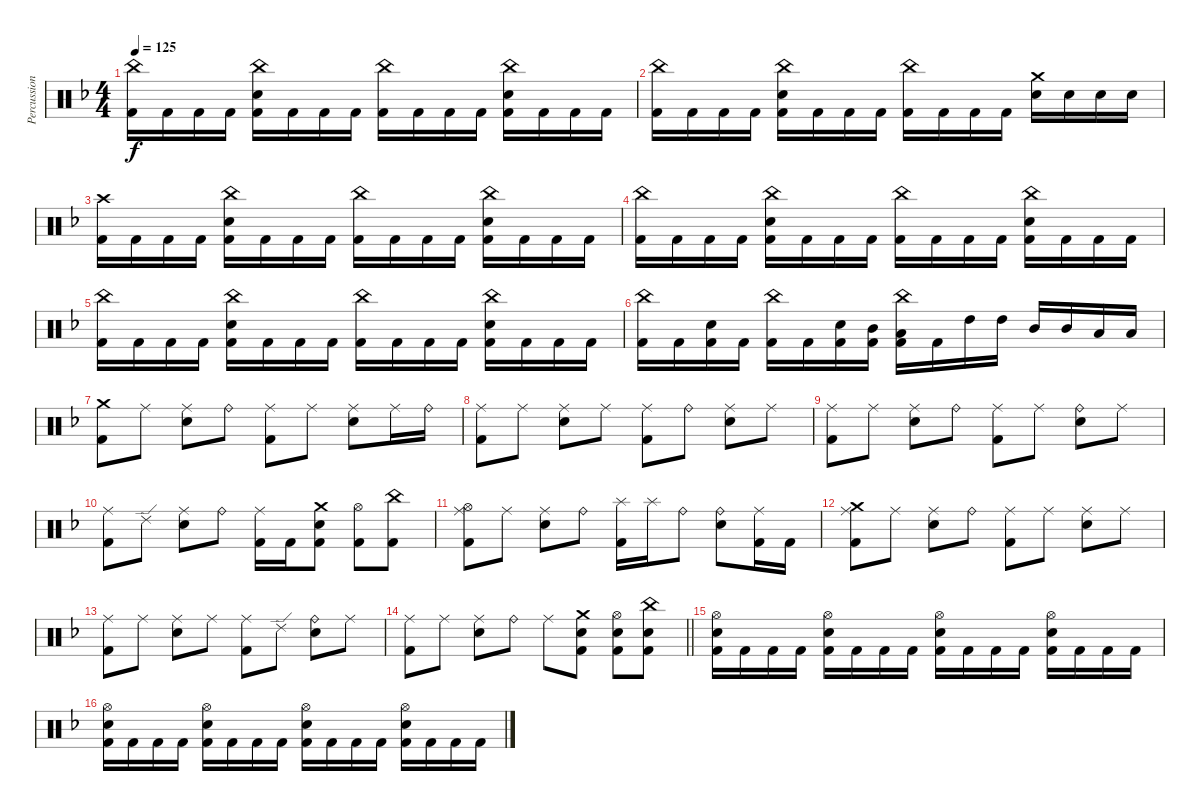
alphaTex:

\track ("Percussions" "Percussion") {instrument percussion}
\staff {score}
\articulation defaults
\ts (4 4)
\tempo 125
\clef neutral
\ks dminor
("China (hit)" "Kick (hit) 2").16{dy f} "Kick (hit) 2".16 "Kick (hit) 2".16 "Kick (hit) 2".16 ("China (hit)" "Electric Snare (hit)" "Kick (hit) 2").16 "Kick (hit) 2".16 "Kick (hit) 2".16 "Kick (hit) 2".16 ("China (hit)" "Kick (hit) 2").16 "Kick (hit) 2".16 "Kick (hit) 2".16 "Kick (hit) 2".16 ("China (hit)" "Electric Snare (hit)" "Kick (hit) 2").16 "Kick (hit) 2".16 "Kick (hit) 2".16 "Kick (hit) 2".16 |
("China (hit)" "Kick (hit) 2").16 "Kick (hit) 2".16 "Kick (hit) 2".16 "Kick (hit) 2".16 ("China (hit)" "Electric Snare (hit)" "Kick (hit) 2").16 "Kick (hit) 2".16 "Kick (hit) 2".16 "Kick (hit) 2".16 ("China (hit)" "Kick (hit) 2").16 "Kick (hit) 2".16 "Kick (hit) 2".16 "Kick (hit) 2".16 ("Crash medium (hit)" "Electric Snare (hit)").16 "Electric Snare (hit)".16 "Electric Snare (hit)".16 "Electric Snare (hit)".16 |
("Crash high (hit)" "Kick (hit) 2").16 "Kick (hit) 2".16 "Kick (hit) 2".16 "Kick (hit) 2".16 ("China (hit)" "Electric Snare (hit)" "Kick (hit) 2").16 "Kick (hit) 2".16 "Kick (hit) 2".16 "Kick (hit) 2".16 ("China (hit)" "Kick (hit) 2").16 "Kick (hit) 2".16 "Kick (hit) 2".16 "Kick (hit) 2".16 ("China (hit)" "Electric Snare (hit)" "Kick (hit) 2").16 "Kick (hit) 2".16 "Kick (hit) 2".16 "Kick (hit) 2".16 |
("China (hit)" "Kick (hit) 2").16 "Kick (hit) 2".16 "Kick (hit) 2".16 "Kick (hit) 2".16 ("China (hit)" "Electric Snare (hit)" "Kick (hit) 2").16 "Kick (hit) 2".16 "Kick (hit) 2".16 "Kick (hit) 2".16 ("China (hit)" "Kick (hit) 2").16 "Kick (hit) 2".16 "Kick (hit) 2".16 "Kick (hit) 2".16 ("China (hit)" "Electric Snare (hit)" "Kick (hit) 2").16 "Kick (hit) 2".16 "Kick (hit) 2".16 "Kick (hit) 2".16 |
("China (hit)" "Kick (hit) 2").16 "Kick (hit) 2".16 "Kick (hit) 2".16 "Kick (hit) 2".16 ("China (hit)" "Electric Snare (hit)" "Kick (hit) 2").16 "Kick (hit) 2".16 "Kick (hit) 2".16 "Kick (hit) 2".16 ("China (hit)" "Kick (hit) 2").16 "Kick (hit) 2".16 "Kick (hit) 2".16 "Kick (hit) 2".16 ("China (hit)" "Electric Snare (hit)" "Kick (hit) 2").16 "Kick (hit) 2".16 "Kick (hit) 2".16 "Kick (hit) 2".16 |
("China (hit)" "Kick (hit) 2").16 "Kick (hit) 2".16 ("Electric Snare (hit)" "Kick (hit) 2").16 "Kick (hit) 2".16 ("China (hit)" "Kick (hit) 2").16 "Kick (hit) 2".16 ("Electric Snare (hit)" "Kick (hit) 2").16 ("Mid Tom (hit)" "Kick (hit) 2").16 ("China (hit)" "Low Tom (hit)" "Kick (hit) 2").16 "Kick (hit) 2".16 "High Tom (hit)".16 "High Tom (hit)".16 "Mid Tom (hit)".16 "Mid Tom (hit)".16 "Low Tom (hit)".16 "Low Tom (hit)".16 |
("Crash medium (hit)" "Kick (hit) 2").8 "Ride (middle)".8 ("Ride (middle)" "Electric Snare (hit)").8 "Ride (bell)".8 ("Ride (middle)" "Kick (hit) 2").8 "Ride (middle)".8 ("Ride (middle)" "Electric Snare (hit)").8 "Ride (middle)".16 "Ride (bell)".16 |
("Ride (middle)" "Kick (hit) 2").8 "Ride (middle)".8 ("Ride (middle)" "Electric Snare (hit)").8 "Ride (middle)".8 ("Ride (middle)" "Kick (hit) 2").8 "Ride (bell)".8 ("Ride (middle)" "Electric Snare (hit)").8 "Ride (middle)".8 |
("Ride (middle)" "Kick (hit) 2").8 "Ride (middle)".8 ("Ride (middle)" "Electric Snare (hit)").8 "Ride (bell)".8 ("Ride (middle)" "Kick (hit) 2").8 "Ride (middle)".8 ("Ride (bell)" "Electric Snare (hit)").8 "Ride (middle)".8 |
("Ride (middle)" "Kick (hit) 2").8 "Ride (edge) 2".8 ("Ride (middle)" "Electric Snare (hit)").8 "Ride (bell)".8 ("Ride (middle)" "Kick (hit) 2").16 "Kick (hit) 2".16 ("Crash medium (hit)" "Electric Snare (hit)" "Kick (hit) 2").8 ("Hi-Hat (open)" "Kick (hit) 2").8 ("China (hit)" "Kick (hit) 2").8 |
("Ride (middle)" "Hi-Hat (open)" "Kick (hit) 2").8 "Ride (middle)".8 ("Ride (middle)" "Electric Snare (hit)").8 "Ride (bell)".8 ("Splash (hit)" "Kick (hit) 2").16 "Splash (hit)".16 "Ride (bell)".8 ("Ride (bell)" "Electric Snare (hit)").8 ("Ride (middle)" "Kick (hit) 2").16 "Kick (hit) 2".16 |
("Ride (middle)" "Crash medium (hit)" "Kick (hit) 2").8 "Ride (middle)".8 ("Ride (middle)" "Electric Snare (hit)").8 "Ride (bell)".8 ("Ride (middle)" "Kick (hit) 2").8 "Ride (middle)".8 ("Ride (middle)" "Electric Snare (hit)").8 "Ride (middle)".8 |
("Ride (middle)" "Kick (hit) 2").8 "Ride (middle)".8 ("Ride (middle)" "Electric Snare (hit)").8 "Ride (middle)".8 ("Ride (middle)" "Kick (hit) 2").8 "Ride (edge) 2".8 ("Ride (bell)" "Electric Snare (hit)").8 "Ride (middle)".8 |
\barLineRight lightlight
("Ride (middle)" "Kick (hit) 2").8 "Ride (middle)".8 ("Ride (middle)" "Electric Snare (hit)").8 "Ride (bell)".8 "Ride (middle)".8 ("Crash medium (hit)" "Electric Snare (hit)" "Kick (hit) 2").8 ("Hi-Hat (open)" "Electric Snare (hit)" "Kick (hit) 2").8 ("China (hit)" "Electric Snare (hit)" "Kick (hit) 2").8 |
("Hi-Hat (open)" "Electric Snare (hit)" "Kick (hit) 2").16 "Kick (hit) 2".16 "Kick (hit) 2".16 "Kick (hit) 2".16 ("Hi-Hat (open)" "Electric Snare (hit)" "Kick (hit) 2").16 "Kick (hit) 2".16 "Kick (hit) 2".16 "Kick (hit) 2".16 ("Hi-Hat (open)" "Electric Snare (hit)" "Kick (hit) 2").16 "Kick (hit) 2".16 "Kick (hit) 2".16 "Kick (hit) 2".16 ("Hi-Hat (open)" "Electric Snare (hit)" "Kick (hit) 2").16 "Kick (hit) 2".16 "Kick (hit) 2".16 "Kick (hit) 2".16 |
("Hi-Hat (open)" "Electric Snare (hit)" "Kick (hit) 2").16 "Kick (hit) 2".16 "Kick (hit) 2".16 "Kick (hit) 2".16 ("Hi-Hat (open)" "Electric Snare (hit)" "Kick (hit) 2").16 "Kick (hit) 2".16 "Kick (hit) 2".16 "Kick (hit) 2".16 ("Hi-Hat (open)" "Electric Snare (hit)" "Kick (hit) 2").16 "Kick (hit) 2".16 "Kick (hit) 2".16 "Kick (hit) 2".16 ("Hi-Hat (open)" "Electric Snare (hit)" "Kick (hit) 2").16 "Kick (hit) 2".16 "Kick (hit) 2".16 "Kick (hit) 2".16
